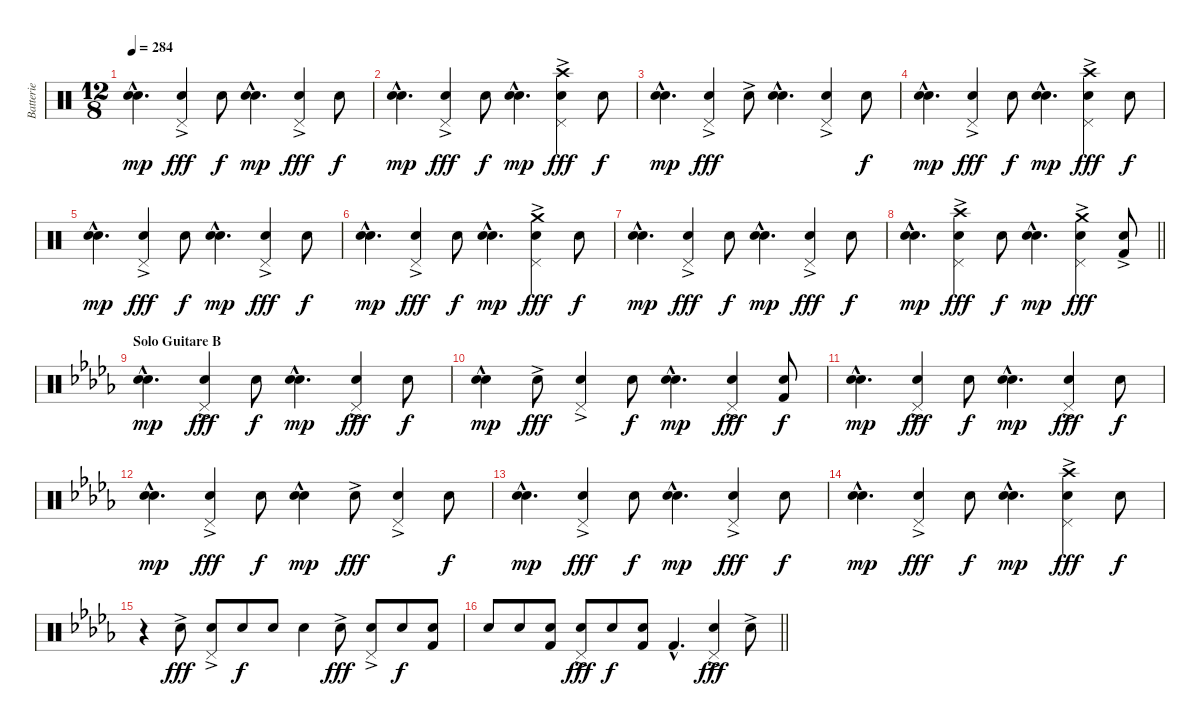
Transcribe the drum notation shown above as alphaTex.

\track ("Batterie" "Batterie") {instrument percussion}
\staff {score}
\articulation defaults
\ts (12 8)
\tempo 284
\clef neutral
\ks c
("Electric Snare (hit)"{hac} "Snare (hit) 2"{hac}).4{d dy mp} ("Pedal Hi-Hat (hit)"{ac} "Snare (hit) 2").4{dy fff} "Snare (hit) 2".8{dy f} ("Electric Snare (hit)"{hac} "Snare (hit) 2"{hac}).4{d dy mp} ("Pedal Hi-Hat (hit)"{ac} "Snare (hit) 2").4{dy fff} "Snare (hit) 2".8{dy f} |
("Electric Snare (hit)"{hac} "Snare (hit) 2"{hac}).4{d dy mp} ("Pedal Hi-Hat (hit)"{ac} "Snare (hit) 2").4{dy fff} "Snare (hit) 2".8{dy f} ("Electric Snare (hit)"{hac} "Snare (hit) 2"{hac}).4{d dy mp} ("Crash high (hit)" "Pedal Hi-Hat (hit)"{ac} "Snare (hit) 2").4{dy fff} "Snare (hit) 2".8{dy f} |
("Electric Snare (hit)"{hac} "Snare (hit) 2"{hac}).4{d dy mp} ("Pedal Hi-Hat (hit)"{ac} "Snare (hit) 2").4{dy fff} "Snare (hit) 2"{ac}.8 ("Electric Snare (hit)"{hac} "Snare (hit) 2"{hac}).4{d} ("Pedal Hi-Hat (hit)"{ac} "Snare (hit) 2").4 "Snare (hit) 2".8{dy f} |
("Electric Snare (hit)"{hac} "Snare (hit) 2"{hac}).4{d dy mp} ("Pedal Hi-Hat (hit)"{ac} "Snare (hit) 2").4{dy fff} "Snare (hit) 2".8{dy f} ("Electric Snare (hit)"{hac} "Snare (hit) 2"{hac}).4{d dy mp} ("Crash high (hit)" "Pedal Hi-Hat (hit)"{ac} "Snare (hit) 2").4{dy fff} "Snare (hit) 2".8{dy f} |
("Electric Snare (hit)"{hac} "Snare (hit) 2"{hac}).4{d dy mp} ("Pedal Hi-Hat (hit)"{ac} "Snare (hit) 2").4{dy fff} "Snare (hit) 2".8{dy f} ("Electric Snare (hit)"{hac} "Snare (hit) 2"{hac}).4{d dy mp} ("Pedal Hi-Hat (hit)"{ac} "Snare (hit) 2").4{dy fff} "Snare (hit) 2".8{dy f} |
("Electric Snare (hit)"{hac} "Snare (hit) 2"{hac}).4{d dy mp} ("Pedal Hi-Hat (hit)"{ac} "Snare (hit) 2").4{dy fff} "Snare (hit) 2".8{dy f} ("Electric Snare (hit)"{hac} "Snare (hit) 2"{hac}).4{d dy mp} ("Crash medium (hit)" "Pedal Hi-Hat (hit)"{ac} "Snare (hit) 2").4{dy fff} "Snare (hit) 2".8{dy f} |
("Electric Snare (hit)"{hac} "Snare (hit) 2"{hac}).4{d dy mp} ("Pedal Hi-Hat (hit)"{ac} "Snare (hit) 2").4{dy fff} "Snare (hit) 2".8{dy f} ("Electric Snare (hit)"{hac} "Snare (hit) 2"{hac}).4{d dy mp} ("Pedal Hi-Hat (hit)"{ac} "Snare (hit) 2").4{dy fff} "Snare (hit) 2".8{dy f} |
\barLineRight lightlight
("Electric Snare (hit)"{hac} "Snare (hit) 2"{hac}).4{d dy mp} ("Crash high (hit)" "Pedal Hi-Hat (hit)"{ac} "Snare (hit) 2").4{dy fff} "Snare (hit) 2".8{dy f} ("Electric Snare (hit)"{hac} "Snare (hit) 2"{hac}).4{d dy mp} ("Crash medium (hit)" "Pedal Hi-Hat (hit)"{ac} "Snare (hit) 2").4{dy fff} ("Snare (hit) 2" "Kick (hit) 2"{ac}).8 |
\section ("" "Solo Guitare B")
\ks db
("Electric Snare (hit)"{hac} "Snare (hit) 2"{hac}).4{d dy mp volume 12 balance 8} ("Pedal Hi-Hat (hit)"{ac} "Snare (hit) 2").4{dy fff} "Snare (hit) 2".8{dy f} ("Electric Snare (hit)"{hac} "Snare (hit) 2"{hac}).4{d dy mp} ("Pedal Hi-Hat (hit)"{ac} "Snare (hit) 2").4{dy fff} "Snare (hit) 2".8{dy f} |
("Electric Snare (hit)"{hac} "Snare (hit) 2").4{dy mp} "Snare (hit) 2"{ac}.8{dy fff} ("Pedal Hi-Hat (hit)"{ac} "Snare (hit) 2").4 "Snare (hit) 2".8{dy f} ("Electric Snare (hit)"{hac} "Snare (hit) 2"{hac}).4{d dy mp} ("Pedal Hi-Hat (hit)"{ac} "Snare (hit) 2").4{dy fff} ("Snare (hit) 2" "Kick (hit) 2").8{dy f} |
("Electric Snare (hit)"{hac} "Snare (hit) 2"{hac}).4{d dy mp} ("Pedal Hi-Hat (hit)"{ac} "Snare (hit) 2").4{dy fff} "Snare (hit) 2".8{dy f} ("Electric Snare (hit)"{hac} "Snare (hit) 2"{hac}).4{d dy mp} ("Pedal Hi-Hat (hit)"{ac} "Snare (hit) 2").4{dy fff} "Snare (hit) 2".8{dy f} |
("Electric Snare (hit)"{hac} "Snare (hit) 2"{hac}).4{d dy mp} ("Pedal Hi-Hat (hit)"{ac} "Snare (hit) 2").4{dy fff} "Snare (hit) 2".8{dy f} ("Electric Snare (hit)"{hac} "Snare (hit) 2").4{dy mp} "Snare (hit) 2"{ac}.8{dy fff} ("Pedal Hi-Hat (hit)"{ac} "Snare (hit) 2").4 "Snare (hit) 2".8{dy f} |
("Electric Snare (hit)"{hac} "Snare (hit) 2"{hac}).4{d dy mp} ("Pedal Hi-Hat (hit)"{ac} "Snare (hit) 2").4{dy fff} "Snare (hit) 2".8{dy f} ("Electric Snare (hit)"{hac} "Snare (hit) 2"{hac}).4{d dy mp} ("Pedal Hi-Hat (hit)"{ac} "Snare (hit) 2").4{dy fff} "Snare (hit) 2".8{dy f} |
("Electric Snare (hit)"{hac} "Snare (hit) 2"{hac}).4{d dy mp} ("Pedal Hi-Hat (hit)"{ac} "Snare (hit) 2").4{dy fff} "Snare (hit) 2".8{dy f} ("Electric Snare (hit)"{hac} "Snare (hit) 2"{hac}).4{d dy mp} ("Crash high (hit)" "Pedal Hi-Hat (hit)"{ac} "Snare (hit) 2").4{dy fff} "Snare (hit) 2".8{dy f} |
r.4 "Snare (hit) 2"{ac}.8{dy fff} ("Pedal Hi-Hat (hit)"{ac} "Snare (hit) 2").8 "Snare (hit) 2".8{dy f} "Snare (hit) 2".8 "Snare (hit) 2".4 "Snare (hit) 2"{ac}.8{dy fff} ("Pedal Hi-Hat (hit)"{ac} "Snare (hit) 2").8 "Snare (hit) 2".8{dy f} ("Snare (hit) 2" "Kick (hit) 2").8 |
\barLineRight lightlight "Snare (hit) 2".8 "Snare (hit) 2".8
("Snare (hit) 2" "Kick (hit) 2").8 ("Pedal Hi-Hat (hit)"{ac} "Snare (hit) 2").8{dy fff} "Snare (hit) 2".8{dy f} ("Snare (hit) 2" "Kick (hit) 2").8 "Kick (hit) 2"{hac}.4{d} ("Pedal Hi-Hat (hit)"{ac} "Snare (hit) 2"{ac}).4{dy fff} "Snare (hit) 2"{ac}.8
